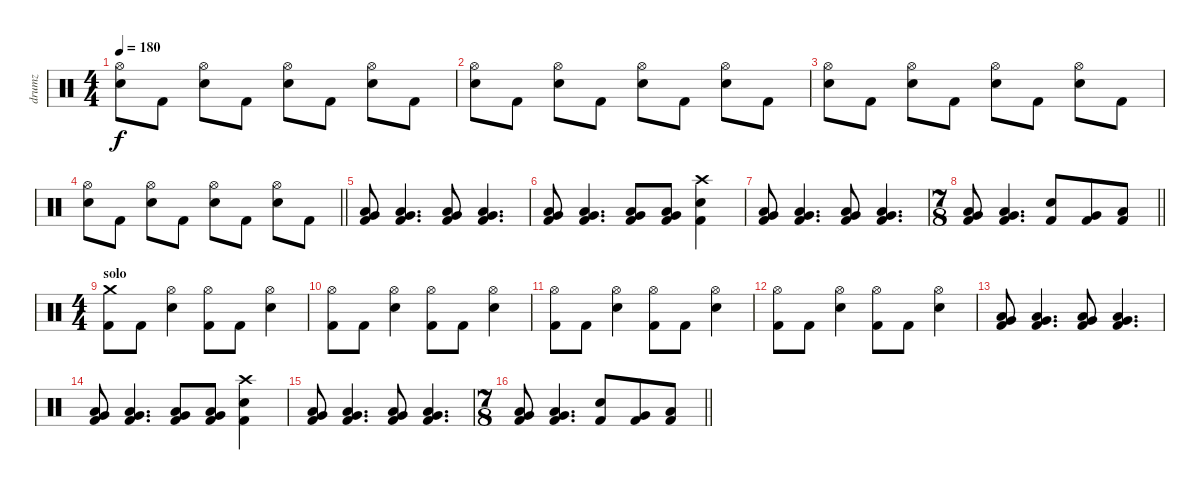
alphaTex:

\track ("drumz" "drumz") {instrument percussion}
\staff {score}
\articulation defaults
\ts (4 4)
\tempo 180
\clef neutral
\ks c
("Hi-Hat (open)" "Electric Snare (hit)").8{dy f} "Kick (hit) 2".8 ("Hi-Hat (open)" "Electric Snare (hit)").8 "Kick (hit) 2".8 ("Hi-Hat (open)" "Electric Snare (hit)").8 "Kick (hit) 2".8 ("Hi-Hat (open)" "Electric Snare (hit)").8 "Kick (hit) 2".8 |
("Hi-Hat (open)" "Electric Snare (hit)").8 "Kick (hit) 2".8 ("Hi-Hat (open)" "Electric Snare (hit)").8 "Kick (hit) 2".8 ("Hi-Hat (open)" "Electric Snare (hit)").8 "Kick (hit) 2".8 ("Hi-Hat (open)" "Electric Snare (hit)").8 "Kick (hit) 2".8 |
("Hi-Hat (open)" "Electric Snare (hit)").8 "Kick (hit) 2".8 ("Hi-Hat (open)" "Electric Snare (hit)").8 "Kick (hit) 2".8 ("Hi-Hat (open)" "Electric Snare (hit)").8 "Kick (hit) 2".8 ("Hi-Hat (open)" "Electric Snare (hit)").8 "Kick (hit) 2".8 |
\barLineRight lightlight
("Hi-Hat (open)" "Electric Snare (hit)").8 "Kick (hit) 2".8 ("Hi-Hat (open)" "Electric Snare (hit)").8 "Kick (hit) 2".8 ("Hi-Hat (open)" "Electric Snare (hit)").8 "Kick (hit) 2".8 ("Hi-Hat (open)" "Electric Snare (hit)").8 "Kick (hit) 2".8 |
("Very Low Tom (hit)" "Low Floor Tom (hit)" "Kick (hit) 2").8 ("Very Low Tom (hit)" "Low Floor Tom (hit)" "Kick (hit) 2").4{d} ("Very Low Tom (hit)" "Low Floor Tom (hit)" "Kick (hit) 2").8 ("Very Low Tom (hit)" "Low Floor Tom (hit)" "Kick (hit) 2").4{d} |
("Very Low Tom (hit)" "Low Floor Tom (hit)" "Kick (hit) 2").8 ("Very Low Tom (hit)" "Low Floor Tom (hit)" "Kick (hit) 2").4{d} ("Very Low Tom (hit)" "Low Floor Tom (hit)" "Kick (hit) 2").8 ("Very Low Tom (hit)" "Low Floor Tom (hit)" "Kick (hit) 2").8 ("Crash high (hit)" "Electric Snare (hit)" "Kick (hit) 2").4 |
("Very Low Tom (hit)" "Low Floor Tom (hit)" "Kick (hit) 2").8 ("Very Low Tom (hit)" "Low Floor Tom (hit)" "Kick (hit) 2").4{d} ("Very Low Tom (hit)" "Low Floor Tom (hit)" "Kick (hit) 2").8 ("Very Low Tom (hit)" "Low Floor Tom (hit)" "Kick (hit) 2").4{d} |
\ts (7 8)
\barLineRight lightlight
("Very Low Tom (hit)" "Low Floor Tom (hit)" "Kick (hit) 2").8 ("Very Low Tom (hit)" "Low Floor Tom (hit)" "Kick (hit) 2").4{d} ("Electric Snare (hit)" "Kick (hit) 2").8 ("Very Low Tom (hit)" "Kick (hit) 2").8 ("Low Floor Tom (hit)" "Kick (hit) 2").8 |
\ts (4 4)
\section ("" "solo")
("Crash medium (hit)" "Kick (hit) 2").8 "Kick (hit) 2".8 ("Hi-Hat (open)" "Electric Snare (hit)").4 ("Hi-Hat (open)" "Kick (hit) 2").8 "Kick (hit) 2".8 ("Hi-Hat (open)" "Electric Snare (hit)").4 |
("Hi-Hat (open)" "Kick (hit) 2").8 "Kick (hit) 2".8 ("Hi-Hat (open)" "Electric Snare (hit)").4 ("Hi-Hat (open)" "Kick (hit) 2").8 "Kick (hit) 2".8 ("Hi-Hat (open)" "Electric Snare (hit)").4 |
("Hi-Hat (open)" "Kick (hit) 2").8 "Kick (hit) 2".8 ("Hi-Hat (open)" "Electric Snare (hit)").4 ("Hi-Hat (open)" "Kick (hit) 2").8 "Kick (hit) 2".8 ("Hi-Hat (open)" "Electric Snare (hit)").4 |
("Hi-Hat (open)" "Kick (hit) 2").8 "Kick (hit) 2".8 ("Hi-Hat (open)" "Electric Snare (hit)").4 ("Hi-Hat (open)" "Kick (hit) 2").8 "Kick (hit) 2".8 ("Hi-Hat (open)" "Electric Snare (hit)").4 |
("Very Low Tom (hit)" "Low Floor Tom (hit)" "Kick (hit) 2").8 ("Very Low Tom (hit)" "Low Floor Tom (hit)" "Kick (hit) 2").4{d} ("Very Low Tom (hit)" "Low Floor Tom (hit)" "Kick (hit) 2").8 ("Very Low Tom (hit)" "Low Floor Tom (hit)" "Kick (hit) 2").4{d} |
("Very Low Tom (hit)" "Low Floor Tom (hit)" "Kick (hit) 2").8 ("Very Low Tom (hit)" "Low Floor Tom (hit)" "Kick (hit) 2").4{d} ("Very Low Tom (hit)" "Low Floor Tom (hit)" "Kick (hit) 2").8 ("Very Low Tom (hit)" "Low Floor Tom (hit)" "Kick (hit) 2").8 ("Crash high (hit)" "Electric Snare (hit)" "Kick (hit) 2").4 |
("Very Low Tom (hit)" "Low Floor Tom (hit)" "Kick (hit) 2").8 ("Very Low Tom (hit)" "Low Floor Tom (hit)" "Kick (hit) 2").4{d} ("Very Low Tom (hit)" "Low Floor Tom (hit)" "Kick (hit) 2").8 ("Very Low Tom (hit)" "Low Floor Tom (hit)" "Kick (hit) 2").4{d} |
\ts (7 8)
\barLineRight lightlight
("Very Low Tom (hit)" "Low Floor Tom (hit)" "Kick (hit) 2").8 ("Very Low Tom (hit)" "Low Floor Tom (hit)" "Kick (hit) 2").4{d} ("Electric Snare (hit)" "Kick (hit) 2").8 ("Very Low Tom (hit)" "Kick (hit) 2").8 ("Low Floor Tom (hit)" "Kick (hit) 2").8
